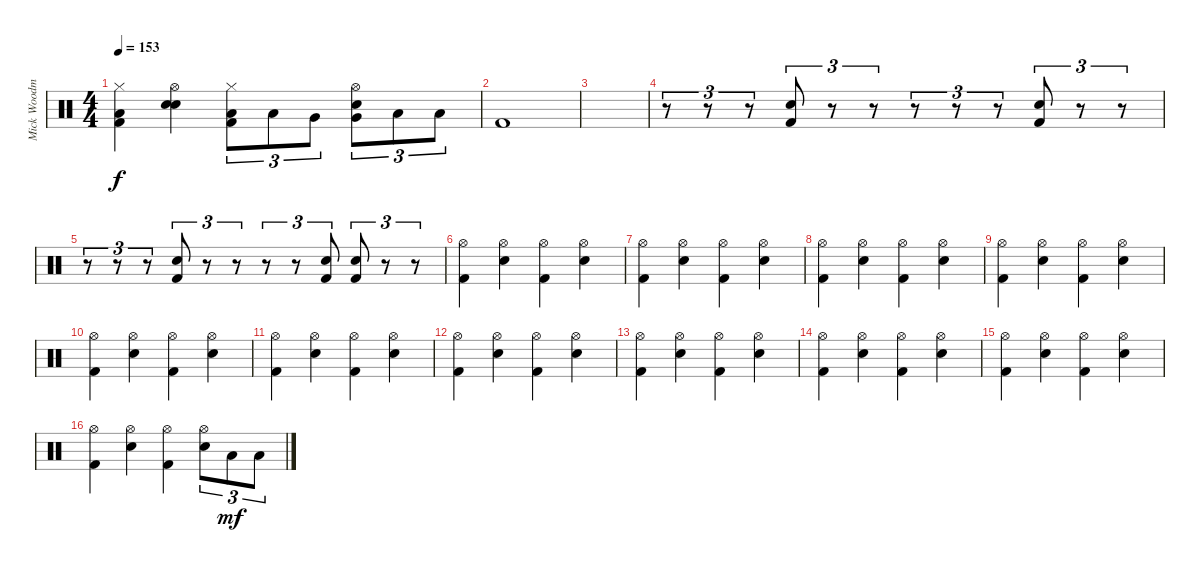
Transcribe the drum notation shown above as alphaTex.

\track ("Mick Woodmansey - Drums" "Mick Woodm") {instrument percussion}
\staff {score}
\articulation defaults
\ts (4 4)
\tempo 153
\clef neutral
\ks c
("Hi-Hat (closed)" "Low Floor Tom (hit)" "Kick (hit) 2").4{dy f} ("Hi-Hat (open)" "Electric Snare (hit)" "Electric Snare (hit)").4 ("Hi-Hat (closed)" "Low Tom (hit)" "Kick (hit) 2").8{tu (3 2)} "Low Tom (hit)".8{tu (3 2)} "Very Low Tom (hit)".8{tu (3 2)} ("Hi-Hat (open)" "Electric Snare (hit)" "Very Low Tom (hit)").8{tu (3 2)} "Low Floor Tom (hit)".8{tu (3 2)} "Low Floor Tom (hit)".8{tu (3 2)} |
"Kick (hit) 2".1 |
|
r.8{tu (3 2)} r.8{tu (3 2)} r.8{tu (3 2)} ("Electric Snare (hit)" "Kick (hit) 2").8{tu (3 2)} r.8{tu (3 2)} r.8{tu (3 2)} r.8{tu (3 2)} r.8{tu (3 2)} r.8{tu (3 2)} ("Electric Snare (hit)" "Kick (hit) 2").8{tu (3 2)} r.8{tu (3 2)} r.8{tu (3 2)} |
r.8{tu (3 2)} r.8{tu (3 2)} r.8{tu (3 2)} ("Electric Snare (hit)" "Kick (hit) 2").8{tu (3 2)} r.8{tu (3 2)} r.8{tu (3 2)} r.8{tu (3 2)} r.8{tu (3 2)} ("Electric Snare (hit)" "Kick (hit) 2").8{tu (3 2)} ("Electric Snare (hit)" "Kick (hit) 2").8{tu (3 2)} r.8{tu (3 2)} r.8{tu (3 2)} |
("Hi-Hat (open)" "Kick (hit) 2").4 ("Hi-Hat (open)" "Electric Snare (hit)").4 ("Hi-Hat (open)" "Kick (hit) 2").4 ("Hi-Hat (open)" "Electric Snare (hit)").4 |
("Hi-Hat (open)" "Kick (hit) 2").4 ("Hi-Hat (open)" "Electric Snare (hit)").4 ("Hi-Hat (open)" "Kick (hit) 2").4 ("Hi-Hat (open)" "Electric Snare (hit)").4 |
("Hi-Hat (open)" "Kick (hit) 2").4 ("Hi-Hat (open)" "Electric Snare (hit)").4 ("Hi-Hat (open)" "Kick (hit) 2").4 ("Hi-Hat (open)" "Electric Snare (hit)").4 |
("Hi-Hat (open)" "Kick (hit) 2").4 ("Hi-Hat (open)" "Electric Snare (hit)").4 ("Hi-Hat (open)" "Kick (hit) 2").4 ("Hi-Hat (open)" "Electric Snare (hit)").4 |
("Hi-Hat (open)" "Kick (hit) 2").4 ("Hi-Hat (open)" "Electric Snare (hit)").4 ("Hi-Hat (open)" "Kick (hit) 2").4 ("Hi-Hat (open)" "Electric Snare (hit)").4 |
("Hi-Hat (open)" "Kick (hit) 2").4 ("Hi-Hat (open)" "Electric Snare (hit)").4 ("Hi-Hat (open)" "Kick (hit) 2").4 ("Hi-Hat (open)" "Electric Snare (hit)").4 |
("Hi-Hat (open)" "Kick (hit) 2").4 ("Hi-Hat (open)" "Electric Snare (hit)").4 ("Hi-Hat (open)" "Kick (hit) 2").4 ("Hi-Hat (open)" "Electric Snare (hit)").4 |
("Hi-Hat (open)" "Kick (hit) 2").4 ("Hi-Hat (open)" "Electric Snare (hit)").4 ("Hi-Hat (open)" "Kick (hit) 2").4 ("Hi-Hat (open)" "Electric Snare (hit)").4 |
("Hi-Hat (open)" "Kick (hit) 2").4 ("Hi-Hat (open)" "Electric Snare (hit)").4 ("Hi-Hat (open)" "Kick (hit) 2").4 ("Hi-Hat (open)" "Electric Snare (hit)").4 |
("Hi-Hat (open)" "Kick (hit) 2").4 ("Hi-Hat (open)" "Electric Snare (hit)").4 ("Hi-Hat (open)" "Kick (hit) 2").4 ("Hi-Hat (open)" "Electric Snare (hit)").4 |
("Hi-Hat (open)" "Kick (hit) 2").4 ("Hi-Hat (open)" "Electric Snare (hit)").4 ("Hi-Hat (open)" "Kick (hit) 2").4 ("Hi-Hat (open)" "Electric Snare (hit)").8{tu (3 2)} "Low Floor Tom (hit)".8{tu (3 2) dy mf} "Low Floor Tom (hit)".8{tu (3 2)}
